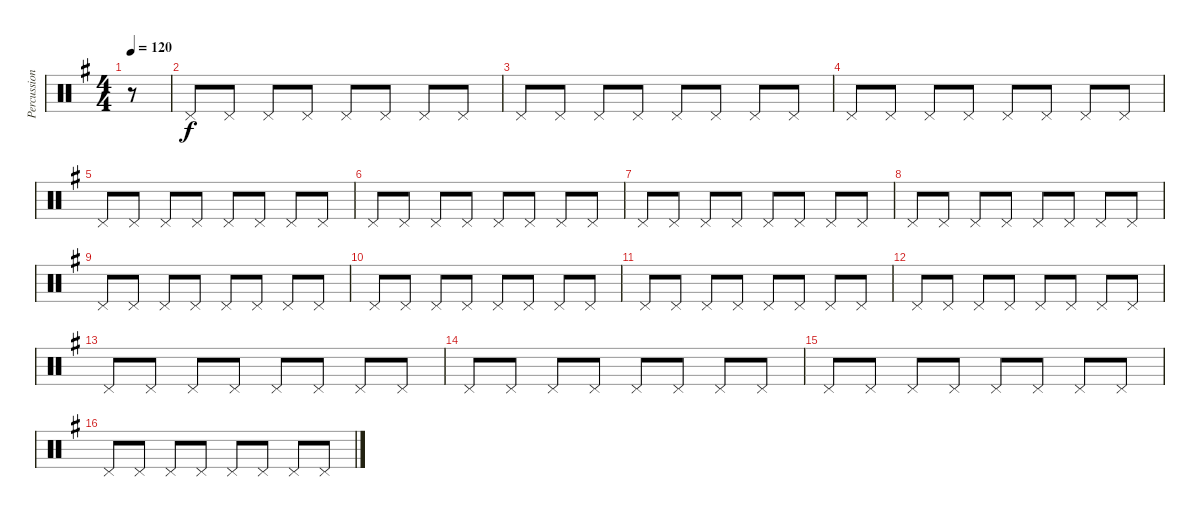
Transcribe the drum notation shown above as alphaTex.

\track ("Percussion" "Percussion") {instrument percussion}
\staff {score}
\articulation defaults
\ts (4 4)
\tempo 120
\clef neutral
\ks eminor
r.8{dy f} |
"Pedal Hi-Hat (hit)".8 "Pedal Hi-Hat (hit)".8 "Pedal Hi-Hat (hit)".8 "Pedal Hi-Hat (hit)".8 "Pedal Hi-Hat (hit)".8 "Pedal Hi-Hat (hit)".8 "Pedal Hi-Hat (hit)".8 "Pedal Hi-Hat (hit)".8 |
"Pedal Hi-Hat (hit)".8 "Pedal Hi-Hat (hit)".8 "Pedal Hi-Hat (hit)".8 "Pedal Hi-Hat (hit)".8 "Pedal Hi-Hat (hit)".8 "Pedal Hi-Hat (hit)".8 "Pedal Hi-Hat (hit)".8 "Pedal Hi-Hat (hit)".8 |
"Pedal Hi-Hat (hit)".8 "Pedal Hi-Hat (hit)".8 "Pedal Hi-Hat (hit)".8 "Pedal Hi-Hat (hit)".8 "Pedal Hi-Hat (hit)".8 "Pedal Hi-Hat (hit)".8 "Pedal Hi-Hat (hit)".8 "Pedal Hi-Hat (hit)".8 |
"Pedal Hi-Hat (hit)".8 "Pedal Hi-Hat (hit)".8 "Pedal Hi-Hat (hit)".8 "Pedal Hi-Hat (hit)".8 "Pedal Hi-Hat (hit)".8 "Pedal Hi-Hat (hit)".8 "Pedal Hi-Hat (hit)".8 "Pedal Hi-Hat (hit)".8 |
"Pedal Hi-Hat (hit)".8 "Pedal Hi-Hat (hit)".8 "Pedal Hi-Hat (hit)".8 "Pedal Hi-Hat (hit)".8 "Pedal Hi-Hat (hit)".8 "Pedal Hi-Hat (hit)".8 "Pedal Hi-Hat (hit)".8 "Pedal Hi-Hat (hit)".8 |
"Pedal Hi-Hat (hit)".8 "Pedal Hi-Hat (hit)".8 "Pedal Hi-Hat (hit)".8 "Pedal Hi-Hat (hit)".8 "Pedal Hi-Hat (hit)".8 "Pedal Hi-Hat (hit)".8 "Pedal Hi-Hat (hit)".8 "Pedal Hi-Hat (hit)".8 |
"Pedal Hi-Hat (hit)".8 "Pedal Hi-Hat (hit)".8 "Pedal Hi-Hat (hit)".8 "Pedal Hi-Hat (hit)".8 "Pedal Hi-Hat (hit)".8 "Pedal Hi-Hat (hit)".8 "Pedal Hi-Hat (hit)".8 "Pedal Hi-Hat (hit)".8 |
"Pedal Hi-Hat (hit)".8 "Pedal Hi-Hat (hit)".8 "Pedal Hi-Hat (hit)".8 "Pedal Hi-Hat (hit)".8 "Pedal Hi-Hat (hit)".8 "Pedal Hi-Hat (hit)".8 "Pedal Hi-Hat (hit)".8 "Pedal Hi-Hat (hit)".8 |
"Pedal Hi-Hat (hit)".8 "Pedal Hi-Hat (hit)".8 "Pedal Hi-Hat (hit)".8 "Pedal Hi-Hat (hit)".8 "Pedal Hi-Hat (hit)".8 "Pedal Hi-Hat (hit)".8 "Pedal Hi-Hat (hit)".8 "Pedal Hi-Hat (hit)".8 |
"Pedal Hi-Hat (hit)".8 "Pedal Hi-Hat (hit)".8 "Pedal Hi-Hat (hit)".8 "Pedal Hi-Hat (hit)".8 "Pedal Hi-Hat (hit)".8 "Pedal Hi-Hat (hit)".8 "Pedal Hi-Hat (hit)".8 "Pedal Hi-Hat (hit)".8 |
"Pedal Hi-Hat (hit)".8 "Pedal Hi-Hat (hit)".8 "Pedal Hi-Hat (hit)".8 "Pedal Hi-Hat (hit)".8 "Pedal Hi-Hat (hit)".8 "Pedal Hi-Hat (hit)".8 "Pedal Hi-Hat (hit)".8 "Pedal Hi-Hat (hit)".8 |
"Pedal Hi-Hat (hit)".8 "Pedal Hi-Hat (hit)".8 "Pedal Hi-Hat (hit)".8 "Pedal Hi-Hat (hit)".8 "Pedal Hi-Hat (hit)".8 "Pedal Hi-Hat (hit)".8 "Pedal Hi-Hat (hit)".8 "Pedal Hi-Hat (hit)".8 |
"Pedal Hi-Hat (hit)".8 "Pedal Hi-Hat (hit)".8 "Pedal Hi-Hat (hit)".8 "Pedal Hi-Hat (hit)".8 "Pedal Hi-Hat (hit)".8 "Pedal Hi-Hat (hit)".8 "Pedal Hi-Hat (hit)".8 "Pedal Hi-Hat (hit)".8 |
"Pedal Hi-Hat (hit)".8 "Pedal Hi-Hat (hit)".8 "Pedal Hi-Hat (hit)".8 "Pedal Hi-Hat (hit)".8 "Pedal Hi-Hat (hit)".8 "Pedal Hi-Hat (hit)".8 "Pedal Hi-Hat (hit)".8 "Pedal Hi-Hat (hit)".8 |
"Pedal Hi-Hat (hit)".8 "Pedal Hi-Hat (hit)".8 "Pedal Hi-Hat (hit)".8 "Pedal Hi-Hat (hit)".8 "Pedal Hi-Hat (hit)".8 "Pedal Hi-Hat (hit)".8 "Pedal Hi-Hat (hit)".8 "Pedal Hi-Hat (hit)".8
